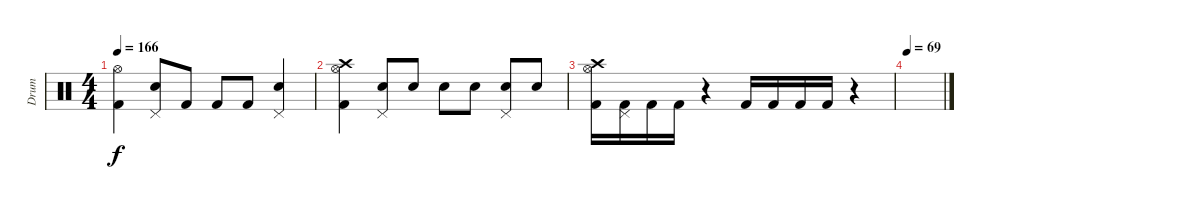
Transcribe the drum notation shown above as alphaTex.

\track ("Drum" "Drum") {instrument percussion}
\staff {score}
\articulation defaults
\ts (4 4)
\tempo 166
\clef neutral
\ks c
("Kick (hit) 2" "Hi-Hat (open)").4{dy f} ("Electric Snare (hit)" "Pedal Hi-Hat (hit)").8 "Kick (hit) 2".8 "Kick (hit) 2".8 "Kick (hit) 2".8 ("Electric Snare (hit)" "Pedal Hi-Hat (hit)").4 |
("Kick (hit) 2" "Hi-Hat (open)" "Crash high (hit)").4 ("Electric Snare (hit)" "Pedal Hi-Hat (hit)").8 "Electric Snare (hit)".8 "Electric Snare (hit)".8 "Electric Snare (hit)".8 ("Electric Snare (hit)" "Pedal Hi-Hat (hit)").8 "Electric Snare (hit)".8 |
("Kick (hit) 2" "Hi-Hat (open)" "Crash high (hit)").16 ("Kick (hit) 2" "Pedal Hi-Hat (hit)").16 "Kick (hit) 2".16 "Kick (hit) 2".16 r.4 "Kick (hit) 2".16 "Kick (hit) 2".16 "Kick (hit) 2".16 "Kick (hit) 2".16 r.4 |
\tempo 69
